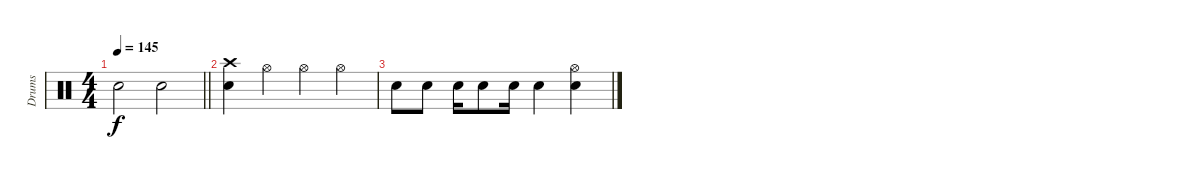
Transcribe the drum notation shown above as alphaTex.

\track ("Drums" "Drums") {instrument percussion}
\staff {score}
\articulation defaults
\ts (4 4)
\tempo 145
\clef neutral
\barLineRight lightlight
\ks c "Electric Snare (hit)".2{dy f} "Electric Snare (hit)".2
|
("Crash high (hit)" "Electric Snare (hit)").4 "Hi-Hat (open)".4 "Hi-Hat (open)".4 "Hi-Hat (open)".4 |
"Electric Snare (hit)".8 "Electric Snare (hit)".8 "Electric Snare (hit)".16 "Electric Snare (hit)".8 "Electric Snare (hit)".16 "Electric Snare (hit)".4 ("Hi-Hat (open)" "Electric Snare (hit)").4
